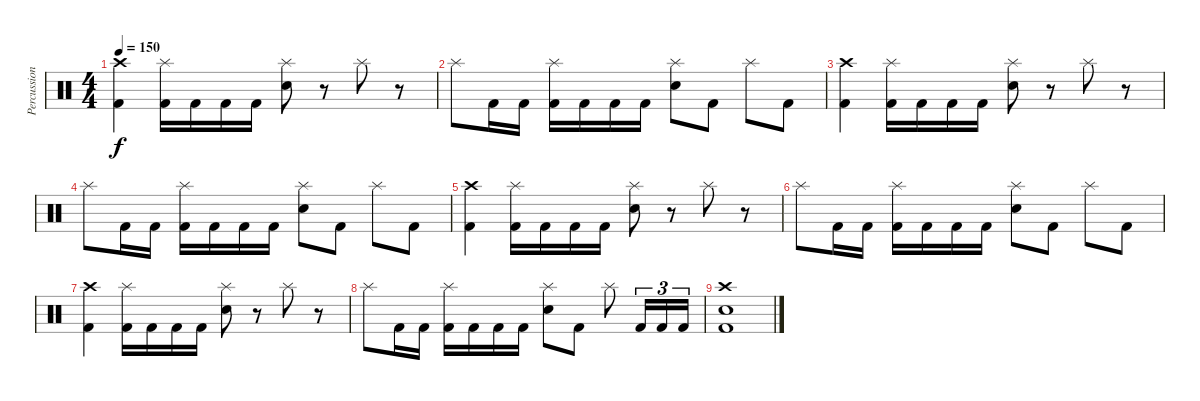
\track ("Percussion" "Percussion") {instrument percussion}
\staff {score}
\articulation defaults
\ts (4 4)
\tempo 150
\clef neutral
\ks c
("Crash high (hit)" "Kick (hit) 2").4{dy f} ("Splash (hit)" "Kick (hit) 2").16 "Kick (hit) 2".16 "Kick (hit) 2".16 "Kick (hit) 2".16 ("Splash (hit)" "Electric Snare (hit)").8 r.8 "Splash (hit)".8 r.8 |
"Splash (hit)".8 "Kick (hit) 2".16 "Kick (hit) 2".16 ("Splash (hit)" "Kick (hit) 2").16 "Kick (hit) 2".16 "Kick (hit) 2".16 "Kick (hit) 2".16 ("Splash (hit)" "Electric Snare (hit)").8 "Kick (hit) 2".8 "Splash (hit)".8 "Kick (hit) 2".8 |
("Crash high (hit)" "Kick (hit) 2").4 ("Splash (hit)" "Kick (hit) 2").16 "Kick (hit) 2".16 "Kick (hit) 2".16 "Kick (hit) 2".16 ("Splash (hit)" "Electric Snare (hit)").8 r.8 "Splash (hit)".8 r.8 |
"Splash (hit)".8 "Kick (hit) 2".16 "Kick (hit) 2".16 ("Splash (hit)" "Kick (hit) 2").16 "Kick (hit) 2".16 "Kick (hit) 2".16 "Kick (hit) 2".16 ("Splash (hit)" "Electric Snare (hit)").8 "Kick (hit) 2".8 "Splash (hit)".8 "Kick (hit) 2".8 |
("Crash high (hit)" "Kick (hit) 2").4 ("Splash (hit)" "Kick (hit) 2").16 "Kick (hit) 2".16 "Kick (hit) 2".16 "Kick (hit) 2".16 ("Splash (hit)" "Electric Snare (hit)").8 r.8 "Splash (hit)".8 r.8 |
"Splash (hit)".8 "Kick (hit) 2".16 "Kick (hit) 2".16 ("Splash (hit)" "Kick (hit) 2").16 "Kick (hit) 2".16 "Kick (hit) 2".16 "Kick (hit) 2".16 ("Splash (hit)" "Electric Snare (hit)").8 "Kick (hit) 2".8 "Splash (hit)".8 "Kick (hit) 2".8 |
("Crash high (hit)" "Kick (hit) 2").4 ("Splash (hit)" "Kick (hit) 2").16 "Kick (hit) 2".16 "Kick (hit) 2".16 "Kick (hit) 2".16 ("Splash (hit)" "Electric Snare (hit)").8 r.8 "Splash (hit)".8 r.8 |
"Splash (hit)".8 "Kick (hit) 2".16 "Kick (hit) 2".16 ("Splash (hit)" "Kick (hit) 2").16 "Kick (hit) 2".16 "Kick (hit) 2".16 "Kick (hit) 2".16 ("Splash (hit)" "Electric Snare (hit)").8 "Kick (hit) 2".8 "Splash (hit)".8 "Kick (hit) 2".16{tu (3 2)} "Kick (hit) 2".16{tu (3 2)} "Kick (hit) 2".16{tu (3 2)} |
("Crash high (hit)" "Electric Snare (hit)" "Kick (hit) 2").1
